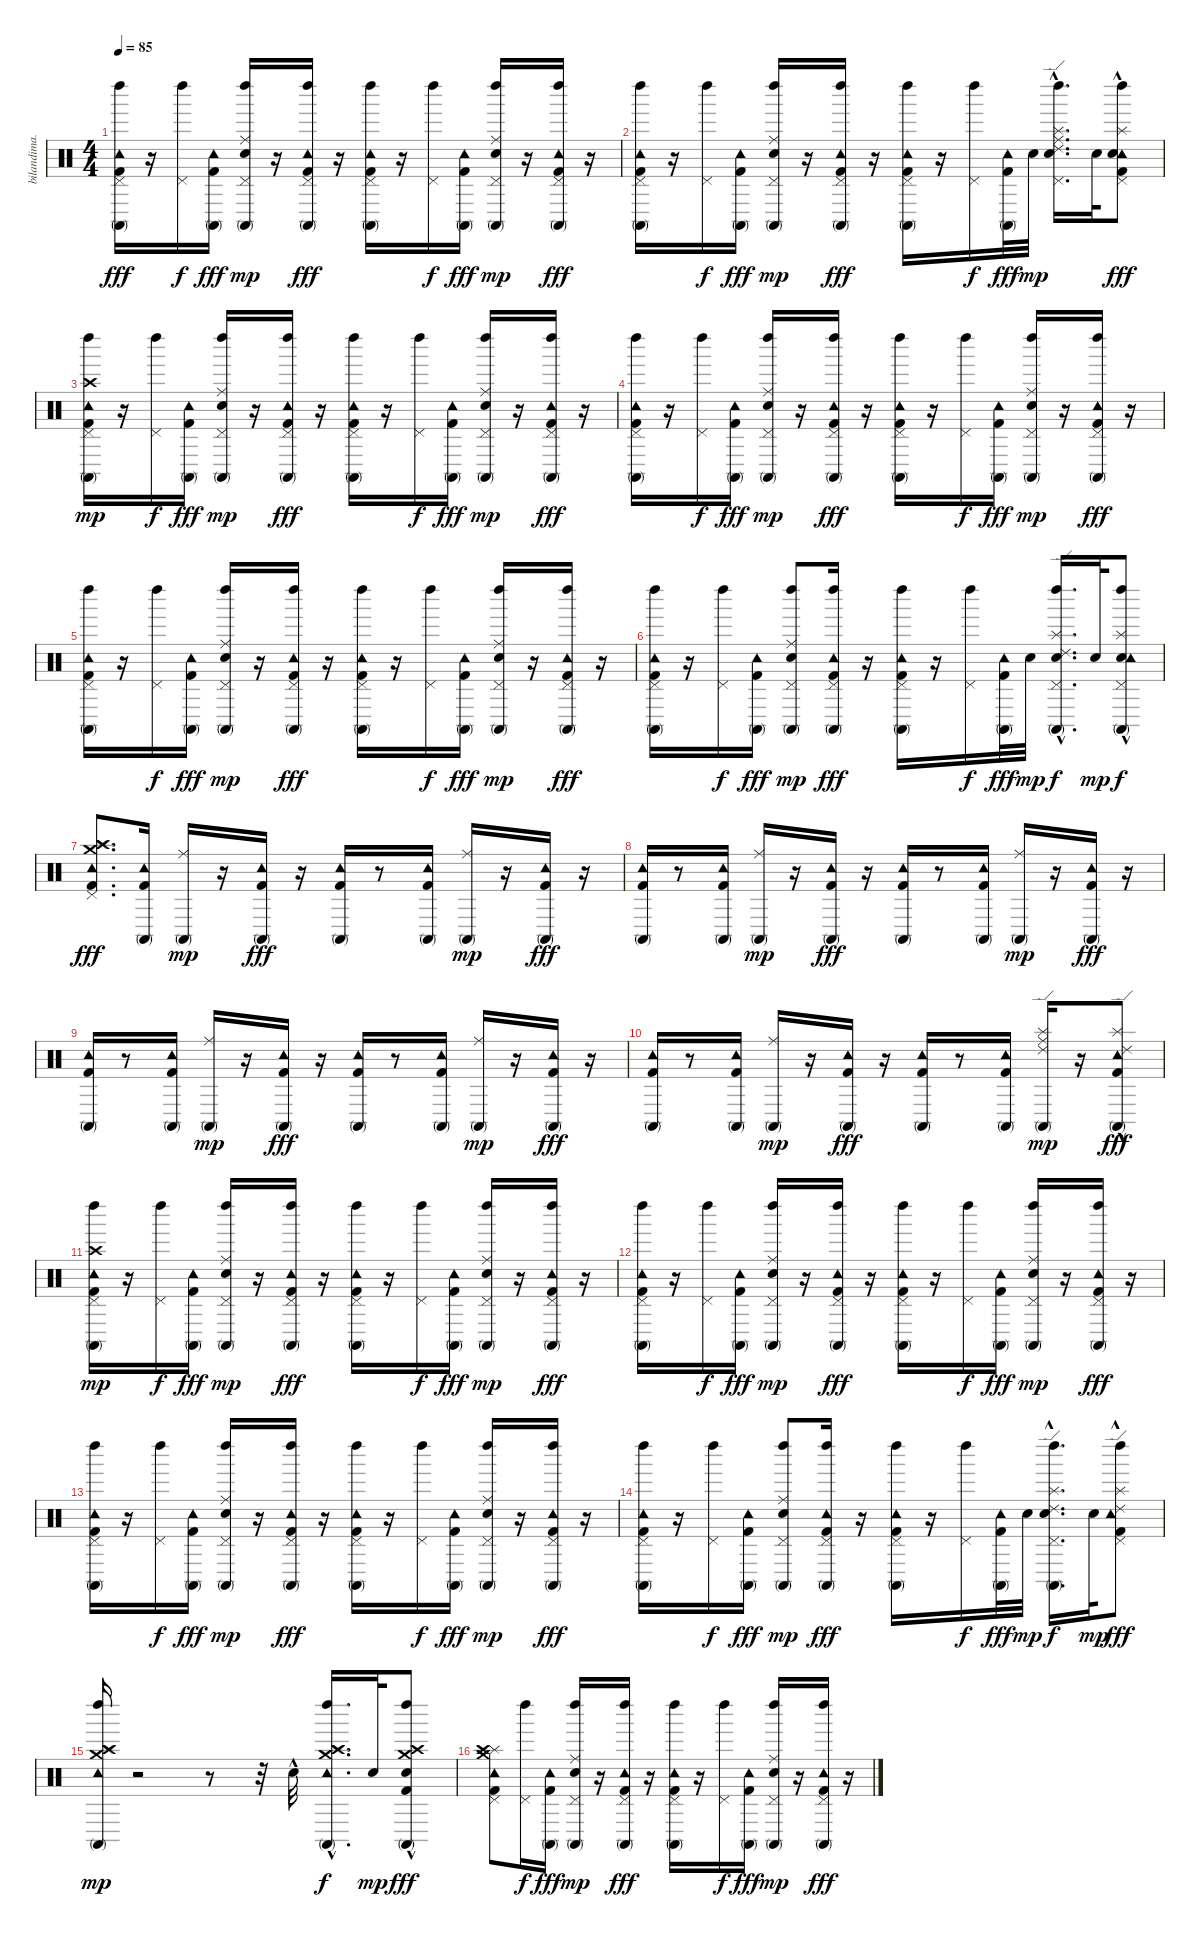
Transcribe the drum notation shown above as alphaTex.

\track ("bilandima.ru" "bilandima.") {instrument percussion}
\staff {score}
\articulation defaults
\ts (4 4)
\tempo 85
\clef neutral
\ks c
("Conga high (mute)" "Left Maraca (hit)" "Tambourine (hit)" "Pedal Hi-Hat (hit)" "Kick (hit) 2").16{dy fff} r.16 ("Pedal Hi-Hat (hit)" "Left Maraca (hit)").16{dy f} ("Tambourine (hit)" "Kick (hit) 2" "Conga high (mute)").16{dy fff} ("Conga high (mute)" "Left Maraca (hit)" "Pedal Hi-Hat (hit)" "Electric Snare (hit)" "Ride (middle)").16{dy mp} r.16 ("Conga high (mute)" "Left Maraca (hit)" "Tambourine (hit)" "Pedal Hi-Hat (hit)" "Kick (hit) 2").16{dy fff} r.16 ("Conga high (mute)" "Left Maraca (hit)" "Tambourine (hit)" "Pedal Hi-Hat (hit)" "Kick (hit) 2").16 r.16 ("Pedal Hi-Hat (hit)" "Left Maraca (hit)").16{dy f} ("Conga high (mute)" "Tambourine (hit)" "Kick (hit) 2").16{dy fff} ("Conga high (mute)" "Left Maraca (hit)" "Pedal Hi-Hat (hit)" "Electric Snare (hit)" "Ride (middle)").16{dy mp} r.16 ("Conga high (mute)" "Left Maraca (hit)" "Tambourine (hit)" "Pedal Hi-Hat (hit)" "Kick (hit) 2").16{dy fff} r.16 |
("Kick (hit) 2" "Pedal Hi-Hat (hit)" "Tambourine (hit)" "Left Maraca (hit)" "Conga high (mute)").16 r.16 ("Left Maraca (hit)" "Pedal Hi-Hat (hit)").16{dy f} ("Kick (hit) 2" "Tambourine (hit)" "Conga high (mute)").16{dy fff} ("Conga high (mute)" "Ride (middle)" "Left Maraca (hit)" "Pedal Hi-Hat (hit)" "Electric Snare (hit)").16{dy mp} r.16 ("Kick (hit) 2" "Pedal Hi-Hat (hit)" "Tambourine (hit)" "Left Maraca (hit)" "Conga high (mute)").16{dy fff} r.16 ("Conga high (mute)" "Left Maraca (hit)" "Tambourine (hit)" "Pedal Hi-Hat (hit)" "Kick (hit) 2").16 r.16 ("Left Maraca (hit)" "Pedal Hi-Hat (hit)").16{dy f} ("Kick (hit) 2" "Tambourine (hit)" "Conga high (mute)").32{dy fff} "Electric Snare (hit)".32{dy mp} ("Ride (middle)" "Pedal Hi-Hat (hit)" "Left Maraca (hit)" "Splash (hit)" "Electric Snare (hit)" "Ride (edge) 2"{hac}).16{d} "Electric Snare (hit)".32 ("Kick (hit) 2" "Pedal Hi-Hat (hit)" "Tambourine (hit)" "Left Maraca (hit)" "Splash (hit)"{hac} "Electric Snare (hit)").8{dy fff} |
("Conga high (mute)" "Left Maraca (hit)" "Tambourine (hit)" "Pedal Hi-Hat (hit)" "Kick (hit) 2" "Crash high (hit)").16{dy mp} r.16 ("Left Maraca (hit)" "Pedal Hi-Hat (hit)").16{dy f} ("Conga high (mute)" "Tambourine (hit)" "Kick (hit) 2").16{dy fff} ("Electric Snare (hit)" "Pedal Hi-Hat (hit)" "Left Maraca (hit)" "Conga high (mute)" "Ride (middle)").16{dy mp} r.16 ("Conga high (mute)" "Left Maraca (hit)" "Tambourine (hit)" "Pedal Hi-Hat (hit)" "Kick (hit) 2").16{dy fff} r.16 ("Left Maraca (hit)" "Tambourine (hit)" "Pedal Hi-Hat (hit)" "Kick (hit) 2" "Conga high (mute)").16 r.16 ("Pedal Hi-Hat (hit)" "Left Maraca (hit)").16{dy f} ("Conga high (mute)" "Tambourine (hit)" "Kick (hit) 2").16{dy fff} ("Electric Snare (hit)" "Pedal Hi-Hat (hit)" "Left Maraca (hit)" "Conga high (mute)" "Ride (middle)").16{dy mp} r.16 ("Conga high (mute)" "Left Maraca (hit)" "Tambourine (hit)" "Pedal Hi-Hat (hit)" "Kick (hit) 2").16{dy fff} r.16 |
("Kick (hit) 2" "Pedal Hi-Hat (hit)" "Tambourine (hit)" "Left Maraca (hit)" "Conga high (mute)").16 r.16 ("Left Maraca (hit)" "Pedal Hi-Hat (hit)").16{dy f} ("Conga high (mute)" "Tambourine (hit)" "Kick (hit) 2").16{dy fff} ("Ride (middle)" "Conga high (mute)" "Left Maraca (hit)" "Pedal Hi-Hat (hit)" "Electric Snare (hit)").16{dy mp} r.16 ("Conga high (mute)" "Left Maraca (hit)" "Tambourine (hit)" "Pedal Hi-Hat (hit)" "Kick (hit) 2").16{dy fff} r.16 ("Conga high (mute)" "Kick (hit) 2" "Pedal Hi-Hat (hit)" "Tambourine (hit)" "Left Maraca (hit)").16 r.16 ("Left Maraca (hit)" "Pedal Hi-Hat (hit)").16{dy f} ("Kick (hit) 2" "Tambourine (hit)" "Conga high (mute)").16{dy fff} ("Ride (middle)" "Conga high (mute)" "Left Maraca (hit)" "Pedal Hi-Hat (hit)" "Electric Snare (hit)").16{dy mp} r.16 ("Kick (hit) 2" "Pedal Hi-Hat (hit)" "Tambourine (hit)" "Left Maraca (hit)" "Conga high (mute)").16{dy fff} r.16 |
("Conga high (mute)" "Left Maraca (hit)" "Tambourine (hit)" "Pedal Hi-Hat (hit)" "Kick (hit) 2").16 r.16 ("Left Maraca (hit)" "Pedal Hi-Hat (hit)").16{dy f} ("Conga high (mute)" "Tambourine (hit)" "Kick (hit) 2").16{dy fff} ("Ride (middle)" "Electric Snare (hit)" "Pedal Hi-Hat (hit)" "Left Maraca (hit)" "Conga high (mute)").16{dy mp} r.16 ("Conga high (mute)" "Left Maraca (hit)" "Tambourine (hit)" "Pedal Hi-Hat (hit)" "Kick (hit) 2").16{dy fff} r.16 ("Conga high (mute)" "Left Maraca (hit)" "Tambourine (hit)" "Pedal Hi-Hat (hit)" "Kick (hit) 2").16 r.16 ("Left Maraca (hit)" "Pedal Hi-Hat (hit)").16{dy f} ("Conga high (mute)" "Tambourine (hit)" "Kick (hit) 2").16{dy fff} ("Ride (middle)" "Electric Snare (hit)" "Pedal Hi-Hat (hit)" "Left Maraca (hit)" "Conga high (mute)").16{dy mp} r.16 ("Conga high (mute)" "Left Maraca (hit)" "Tambourine (hit)" "Pedal Hi-Hat (hit)" "Kick (hit) 2").16{dy fff} r.16 |
("Conga high (mute)" "Left Maraca (hit)" "Tambourine (hit)" "Pedal Hi-Hat (hit)" "Kick (hit) 2").16 r.16 ("Pedal Hi-Hat (hit)" "Left Maraca (hit)").16{dy f} ("Conga high (mute)" "Tambourine (hit)" "Kick (hit) 2").16{dy fff} ("Conga high (mute)" "Ride (middle)" "Left Maraca (hit)" "Pedal Hi-Hat (hit)" "Electric Snare (hit)").8{dy mp} ("Conga high (mute)" "Left Maraca (hit)" "Tambourine (hit)" "Pedal Hi-Hat (hit)" "Kick (hit) 2").16{dy fff} r.16 ("Conga high (mute)" "Left Maraca (hit)" "Tambourine (hit)" "Pedal Hi-Hat (hit)" "Kick (hit) 2").16 r.16 ("Left Maraca (hit)" "Pedal Hi-Hat (hit)").16{dy f} ("Kick (hit) 2" "Tambourine (hit)" "Conga high (mute)").32{dy fff} "Electric Snare (hit)".32{dy mp} ("Ride (edge) 2"{hac} "Conga high (mute)" "Electric Snare (hit)" "Splash (hit)" "Left Maraca (hit)" "Pedal Hi-Hat (hit)").16{d dy f} "Electric Snare (hit)".32{dy mp} ("Conga high (mute)"{hac} "Electric Snare (hit)" "Splash (hit)" "Left Maraca (hit)"{hac} "Tambourine (hit)" "Pedal Hi-Hat (hit)").8{dy f} |
("Splash (hit)" "Crash medium (hit)" "Crash high (hit)" "Kick (hit) 2" "Pedal Hi-Hat (hit)" "Tambourine (hit)").8{d dy fff} ("Kick (hit) 2" "Tambourine (hit)" "Conga high (mute)").16 ("Ride (middle)" "Conga high (mute)").16{dy mp} r.16 ("Kick (hit) 2" "Tambourine (hit)" "Conga high (mute)").16{dy fff} r.16 ("Tambourine (hit)" "Kick (hit) 2" "Conga high (mute)").16 r.8 ("Conga high (mute)" "Tambourine (hit)" "Kick (hit) 2").16 ("Conga high (mute)" "Ride (middle)").16{dy mp} r.16 ("Conga high (mute)" "Tambourine (hit)" "Kick (hit) 2").16{dy fff} r.16 |
("Conga high (mute)" "Tambourine (hit)" "Kick (hit) 2").16 r.8 ("Conga high (mute)" "Tambourine (hit)" "Kick (hit) 2").16 ("Conga high (mute)" "Ride (middle)").16{dy mp} r.16 ("Conga high (mute)" "Tambourine (hit)" "Kick (hit) 2").16{dy fff} r.16 ("Tambourine (hit)" "Kick (hit) 2" "Conga high (mute)").16 r.8 ("Conga high (mute)" "Tambourine (hit)" "Kick (hit) 2").16 ("Ride (middle)" "Conga high (mute)").16{dy mp} r.16 ("Conga high (mute)" "Tambourine (hit)" "Kick (hit) 2").16{dy fff} r.16 |
("Kick (hit) 2" "Tambourine (hit)" "Conga high (mute)").16 r.8 ("Tambourine (hit)" "Kick (hit) 2" "Conga high (mute)").16 ("Conga high (mute)" "Ride (middle)").16{dy mp} r.16 ("Kick (hit) 2" "Tambourine (hit)" "Conga high (mute)").16{dy fff} r.16 ("Kick (hit) 2" "Tambourine (hit)" "Conga high (mute)").16 r.8 ("Kick (hit) 2" "Tambourine (hit)" "Conga high (mute)").16 ("Conga high (mute)" "Ride (middle)").16{dy mp} r.16 ("Kick (hit) 2" "Tambourine (hit)" "Conga high (mute)").16{dy fff} r.16 |
("Conga high (mute)" "Tambourine (hit)" "Kick (hit) 2").16 r.8 ("Conga high (mute)" "Tambourine (hit)" "Kick (hit) 2").16 ("Conga high (mute)" "Ride (middle)").16{dy mp} r.16 ("Conga high (mute)" "Tambourine (hit)" "Kick (hit) 2").16{dy fff} r.16 ("Conga high (mute)" "Tambourine (hit)" "Kick (hit) 2").16 r.8 ("Conga high (mute)" "Tambourine (hit)" "Kick (hit) 2").16 ("Ride (middle)" "Splash (hit)" "Ride (edge) 2" "Conga high (mute)").16{dy mp} r.16 ("Conga high (mute)" "Ride (edge) 2" "Splash (hit)"{hac} "Tambourine (hit)" "Kick (hit) 2").8{dy fff} |
("Conga high (mute)" "Left Maraca (hit)" "Tambourine (hit)" "Pedal Hi-Hat (hit)" "Kick (hit) 2" "Crash high (hit)").16{dy mp} r.16 ("Pedal Hi-Hat (hit)" "Left Maraca (hit)").16{dy f} ("Conga high (mute)" "Tambourine (hit)" "Kick (hit) 2").16{dy fff} ("Ride (middle)" "Conga high (mute)" "Left Maraca (hit)" "Pedal Hi-Hat (hit)" "Electric Snare (hit)").16{dy mp} r.16 ("Conga high (mute)" "Left Maraca (hit)" "Tambourine (hit)" "Pedal Hi-Hat (hit)" "Kick (hit) 2").16{dy fff} r.16 ("Conga high (mute)" "Kick (hit) 2" "Pedal Hi-Hat (hit)" "Tambourine (hit)" "Left Maraca (hit)").16 r.16 ("Left Maraca (hit)" "Pedal Hi-Hat (hit)").16{dy f} ("Kick (hit) 2" "Tambourine (hit)" "Conga high (mute)").16{dy fff} ("Ride (middle)" "Left Maraca (hit)" "Pedal Hi-Hat (hit)" "Electric Snare (hit)" "Conga high (mute)").16{dy mp} r.16 ("Kick (hit) 2" "Pedal Hi-Hat (hit)" "Tambourine (hit)" "Left Maraca (hit)" "Conga high (mute)").16{dy fff} r.16 |
("Conga high (mute)" "Left Maraca (hit)" "Tambourine (hit)" "Pedal Hi-Hat (hit)" "Kick (hit) 2").16 r.16 ("Left Maraca (hit)" "Pedal Hi-Hat (hit)").16{dy f} ("Kick (hit) 2" "Tambourine (hit)" "Conga high (mute)").16{dy fff} ("Ride (middle)" "Conga high (mute)" "Left Maraca (hit)" "Pedal Hi-Hat (hit)" "Electric Snare (hit)").16{dy mp} r.16 ("Kick (hit) 2" "Pedal Hi-Hat (hit)" "Tambourine (hit)" "Left Maraca (hit)" "Conga high (mute)").16{dy fff} r.16 ("Left Maraca (hit)" "Tambourine (hit)" "Pedal Hi-Hat (hit)" "Kick (hit) 2" "Conga high (mute)").16 r.16 ("Left Maraca (hit)" "Pedal Hi-Hat (hit)").16{dy f} ("Conga high (mute)" "Tambourine (hit)" "Kick (hit) 2").16{dy fff} ("Electric Snare (hit)" "Pedal Hi-Hat (hit)" "Left Maraca (hit)" "Conga high (mute)" "Ride (middle)").16{dy mp} r.16 ("Kick (hit) 2" "Pedal Hi-Hat (hit)" "Tambourine (hit)" "Left Maraca (hit)" "Conga high (mute)").16{dy fff} r.16 |
("Conga high (mute)" "Left Maraca (hit)" "Tambourine (hit)" "Pedal Hi-Hat (hit)" "Kick (hit) 2").16 r.16 ("Pedal Hi-Hat (hit)" "Left Maraca (hit)").16{dy f} ("Conga high (mute)" "Tambourine (hit)" "Kick (hit) 2").16{dy fff} ("Conga high (mute)" "Left Maraca (hit)" "Pedal Hi-Hat (hit)" "Electric Snare (hit)" "Ride (middle)").16{dy mp} r.16 ("Conga high (mute)" "Left Maraca (hit)" "Tambourine (hit)" "Pedal Hi-Hat (hit)" "Kick (hit) 2").16{dy fff} r.16 ("Conga high (mute)" "Left Maraca (hit)" "Tambourine (hit)" "Pedal Hi-Hat (hit)" "Kick (hit) 2").16 r.16 ("Pedal Hi-Hat (hit)" "Left Maraca (hit)").16{dy f} ("Conga high (mute)" "Tambourine (hit)" "Kick (hit) 2").16{dy fff} ("Conga high (mute)" "Left Maraca (hit)" "Pedal Hi-Hat (hit)" "Electric Snare (hit)" "Ride (middle)").16{dy mp} r.16 ("Conga high (mute)" "Left Maraca (hit)" "Tambourine (hit)" "Pedal Hi-Hat (hit)" "Kick (hit) 2").16{dy fff} r.16 |
("Kick (hit) 2" "Pedal Hi-Hat (hit)" "Tambourine (hit)" "Left Maraca (hit)" "Conga high (mute)").16 r.16 ("Left Maraca (hit)" "Pedal Hi-Hat (hit)").16{dy f} ("Kick (hit) 2" "Tambourine (hit)" "Conga high (mute)").16{dy fff} ("Conga high (mute)" "Ride (middle)" "Left Maraca (hit)" "Pedal Hi-Hat (hit)" "Electric Snare (hit)").8{dy mp} ("Kick (hit) 2" "Pedal Hi-Hat (hit)" "Tambourine (hit)" "Left Maraca (hit)" "Conga high (mute)").16{dy fff} r.16 ("Kick (hit) 2" "Pedal Hi-Hat (hit)" "Tambourine (hit)" "Left Maraca (hit)" "Conga high (mute)").16 r.16 ("Left Maraca (hit)" "Pedal Hi-Hat (hit)").16{dy f} ("Conga high (mute)" "Tambourine (hit)" "Kick (hit) 2").32{dy fff} "Electric Snare (hit)".32{dy mp} ("Ride (edge) 2" "Conga high (mute)"{hac} "Electric Snare (hit)" "Splash (hit)" "Left Maraca (hit)" "Pedal Hi-Hat (hit)").16{d dy f} "Electric Snare (hit)".32{dy mp} ("Ride (edge) 2" "Kick (hit) 2"{hac} "Pedal Hi-Hat (hit)" "Tambourine (hit)" "Left Maraca (hit)" "Splash (hit)").8{dy fff} |
("Left Maraca (hit)" "Conga high (mute)" "Crash high (hit)" "Crash medium (hit)" "Splash (hit)" "Tambourine (hit)").16{dy mp} r.2 r.8 r.32 "Electric Snare (hit)"{hac}.32 ("Left Maraca (hit)" "Conga high (mute)" "Crash high (hit)" "Crash medium (hit)" "Splash (hit)"{hac} "Tambourine (hit)"{hac}).16{d dy f} "Electric Snare (hit)".32{dy mp} ("Kick (hit) 2" "Electric Snare (hit)" "Left Maraca (hit)"{hac} "Conga high (mute)"{hac} "Crash high (hit)" "Crash medium (hit)").8{dy fff} |
("Splash (hit)" "Crash medium (hit)" "Crash high (hit)" "Kick (hit) 2" "Pedal Hi-Hat (hit)" "Tambourine (hit)").8 ("Pedal Hi-Hat (hit)" "Left Maraca (hit)").16{dy f} ("Conga high (mute)" "Tambourine (hit)" "Kick (hit) 2").16{dy fff} ("Ride (middle)" "Conga high (mute)" "Left Maraca (hit)" "Pedal Hi-Hat (hit)" "Electric Snare (hit)").16{dy mp} r.16 ("Conga high (mute)" "Left Maraca (hit)" "Tambourine (hit)" "Pedal Hi-Hat (hit)" "Kick (hit) 2").16{dy fff} r.16 ("Conga high (mute)" "Kick (hit) 2" "Pedal Hi-Hat (hit)" "Tambourine (hit)" "Left Maraca (hit)").16 r.16 ("Left Maraca (hit)" "Pedal Hi-Hat (hit)").16{dy f} ("Kick (hit) 2" "Tambourine (hit)" "Conga high (mute)").16{dy fff} ("Ride (middle)" "Conga high (mute)" "Left Maraca (hit)" "Pedal Hi-Hat (hit)" "Electric Snare (hit)").16{dy mp} r.16 ("Kick (hit) 2" "Pedal Hi-Hat (hit)" "Tambourine (hit)" "Left Maraca (hit)" "Conga high (mute)").16{dy fff} r.16
